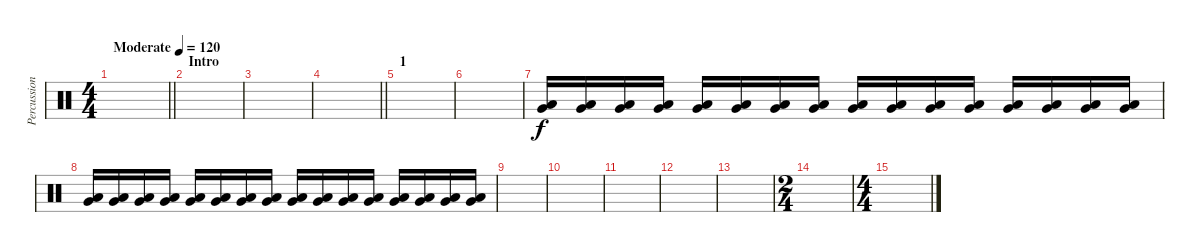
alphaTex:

\track ("Percussion" "Percussion") {instrument percussion}
\staff {score}
\articulation defaults
\ts (4 4)
\tempo (120 "Moderate")
\tempo 70
\tempo (120 "Moderate")
\clef neutral
\barLineRight lightlight
\ks c
|
\section ("" "Intro")
|
|
\barLineRight lightlight
|
\section ("" "1")
|
|
("Low Tom (hit)" "Very Low Tom (hit)").16 ("Low Tom (hit)" "Very Low Tom (hit)").16 ("Low Tom (hit)" "Very Low Tom (hit)").16 ("Low Tom (hit)" "Very Low Tom (hit)").16 ("Low Tom (hit)" "Very Low Tom (hit)").16 ("Low Tom (hit)" "Very Low Tom (hit)").16 ("Low Tom (hit)" "Very Low Tom (hit)").16 ("Low Tom (hit)" "Very Low Tom (hit)").16 ("Low Tom (hit)" "Very Low Tom (hit)").16 ("Low Tom (hit)" "Very Low Tom (hit)").16 ("Low Tom (hit)" "Very Low Tom (hit)").16 ("Low Tom (hit)" "Very Low Tom (hit)").16 ("Low Tom (hit)" "Very Low Tom (hit)").16 ("Low Tom (hit)" "Very Low Tom (hit)").16 ("Low Tom (hit)" "Very Low Tom (hit)").16 ("Low Tom (hit)" "Very Low Tom (hit)").16 |
("Low Tom (hit)" "Very Low Tom (hit)").16 ("Low Tom (hit)" "Very Low Tom (hit)").16 ("Low Tom (hit)" "Very Low Tom (hit)").16 ("Low Tom (hit)" "Very Low Tom (hit)").16 ("Low Tom (hit)" "Very Low Tom (hit)").16 ("Low Tom (hit)" "Very Low Tom (hit)").16 ("Low Tom (hit)" "Very Low Tom (hit)").16 ("Low Tom (hit)" "Very Low Tom (hit)").16 ("Low Tom (hit)" "Very Low Tom (hit)").16 ("Low Tom (hit)" "Very Low Tom (hit)").16 ("Low Tom (hit)" "Very Low Tom (hit)").16 ("Low Tom (hit)" "Very Low Tom (hit)").16 ("Low Tom (hit)" "Very Low Tom (hit)").16 ("Low Tom (hit)" "Very Low Tom (hit)").16 ("Low Tom (hit)" "Very Low Tom (hit)").16 ("Low Tom (hit)" "Very Low Tom (hit)").16 |
|
|
|
|
|
\ts (2 4)
|
\ts (4 4)
